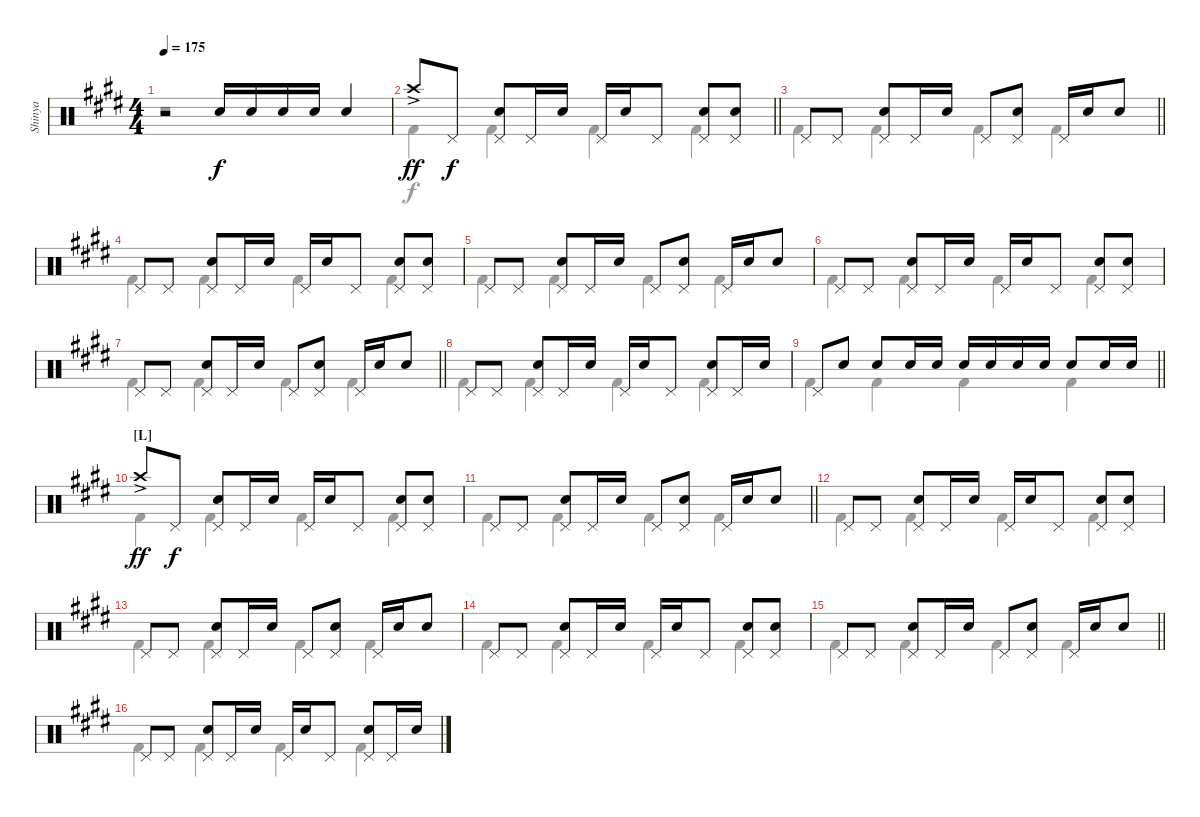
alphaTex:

\track ("Shinya" "Shinya") {instrument percussion}
\staff {score}
\articulation defaults
\voice
\ts (4 4)
\tempo 175
\clef neutral
\ks c#minor
r.2{dy f} "Snare (hit) 2".16 "Snare (hit) 2".16 "Snare (hit) 2".16 "Snare (hit) 2".16 "Snare (hit) 2".4 |
\barLineRight lightlight "Crash high (hit)"{ac}.8{dy ff} "Pedal Hi-Hat (hit)".8{dy f}
("Pedal Hi-Hat (hit)" "Snare (hit) 2").8 "Pedal Hi-Hat (hit)".16 "Snare (hit) 2".16 "Pedal Hi-Hat (hit)".16 "Snare (hit) 2".16 "Pedal Hi-Hat (hit)".8 ("Pedal Hi-Hat (hit)" "Snare (hit) 2").8 ("Pedal Hi-Hat (hit)" "Snare (hit) 2").8 |
\barLineRight lightlight "Pedal Hi-Hat (hit)".8 "Pedal Hi-Hat (hit)".8
("Pedal Hi-Hat (hit)" "Snare (hit) 2").8 "Pedal Hi-Hat (hit)".16 "Snare (hit) 2".16 "Pedal Hi-Hat (hit)".8 ("Pedal Hi-Hat (hit)" "Snare (hit) 2").8 "Pedal Hi-Hat (hit)".16 "Snare (hit) 2".16 "Snare (hit) 2".8 |
"Pedal Hi-Hat (hit)".8 "Pedal Hi-Hat (hit)".8 ("Pedal Hi-Hat (hit)" "Snare (hit) 2").8 "Pedal Hi-Hat (hit)".16 "Snare (hit) 2".16 "Pedal Hi-Hat (hit)".16 "Snare (hit) 2".16 "Pedal Hi-Hat (hit)".8 ("Pedal Hi-Hat (hit)" "Snare (hit) 2").8 ("Pedal Hi-Hat (hit)" "Snare (hit) 2").8 |
"Pedal Hi-Hat (hit)".8 "Pedal Hi-Hat (hit)".8 ("Pedal Hi-Hat (hit)" "Snare (hit) 2").8 "Pedal Hi-Hat (hit)".16 "Snare (hit) 2".16 "Pedal Hi-Hat (hit)".8 ("Pedal Hi-Hat (hit)" "Snare (hit) 2").8 "Pedal Hi-Hat (hit)".16 "Snare (hit) 2".16 "Snare (hit) 2".8 |
"Pedal Hi-Hat (hit)".8 "Pedal Hi-Hat (hit)".8 ("Pedal Hi-Hat (hit)" "Snare (hit) 2").8 "Pedal Hi-Hat (hit)".16 "Snare (hit) 2".16 "Pedal Hi-Hat (hit)".16 "Snare (hit) 2".16 "Pedal Hi-Hat (hit)".8 ("Pedal Hi-Hat (hit)" "Snare (hit) 2").8 ("Pedal Hi-Hat (hit)" "Snare (hit) 2").8 |
\barLineRight lightlight "Pedal Hi-Hat (hit)".8 "Pedal Hi-Hat (hit)".8
("Pedal Hi-Hat (hit)" "Snare (hit) 2").8 "Pedal Hi-Hat (hit)".16 "Snare (hit) 2".16 "Pedal Hi-Hat (hit)".8 ("Pedal Hi-Hat (hit)" "Snare (hit) 2").8 "Pedal Hi-Hat (hit)".16 "Snare (hit) 2".16 "Snare (hit) 2".8 |
"Pedal Hi-Hat (hit)".8 "Pedal Hi-Hat (hit)".8 ("Pedal Hi-Hat (hit)" "Snare (hit) 2").8 "Pedal Hi-Hat (hit)".16 "Snare (hit) 2".16 "Pedal Hi-Hat (hit)".16 "Snare (hit) 2".16 "Pedal Hi-Hat (hit)".8 ("Pedal Hi-Hat (hit)" "Snare (hit) 2").8 "Pedal Hi-Hat (hit)".16 "Snare (hit) 2".16 |
\barLineRight lightlight "Pedal Hi-Hat (hit)".8 "Snare (hit) 2".8 "Snare (hit) 2".8 "Snare (hit) 2".16 "Snare (hit) 2".16 "Snare (hit) 2".16 "Snare (hit) 2".16 "Snare (hit) 2".16 "Snare (hit) 2".16 "Snare (hit) 2".8 "Snare (hit) 2".16 "Snare (hit) 2".16
|
\section ("" "[L]")
"Crash high (hit)"{ac}.8{dy ff} "Pedal Hi-Hat (hit)".8{dy f} ("Pedal Hi-Hat (hit)" "Snare (hit) 2").8 "Pedal Hi-Hat (hit)".16 "Snare (hit) 2".16 "Pedal Hi-Hat (hit)".16 "Snare (hit) 2".16 "Pedal Hi-Hat (hit)".8 ("Pedal Hi-Hat (hit)" "Snare (hit) 2").8 ("Pedal Hi-Hat (hit)" "Snare (hit) 2").8 |
\barLineRight lightlight "Pedal Hi-Hat (hit)".8 "Pedal Hi-Hat (hit)".8
("Pedal Hi-Hat (hit)" "Snare (hit) 2").8 "Pedal Hi-Hat (hit)".16 "Snare (hit) 2".16 "Pedal Hi-Hat (hit)".8 ("Pedal Hi-Hat (hit)" "Snare (hit) 2").8 "Pedal Hi-Hat (hit)".16 "Snare (hit) 2".16 "Snare (hit) 2".8 |
"Pedal Hi-Hat (hit)".8 "Pedal Hi-Hat (hit)".8 ("Pedal Hi-Hat (hit)" "Snare (hit) 2").8 "Pedal Hi-Hat (hit)".16 "Snare (hit) 2".16 "Pedal Hi-Hat (hit)".16 "Snare (hit) 2".16 "Pedal Hi-Hat (hit)".8 ("Pedal Hi-Hat (hit)" "Snare (hit) 2").8 ("Pedal Hi-Hat (hit)" "Snare (hit) 2").8 |
"Pedal Hi-Hat (hit)".8 "Pedal Hi-Hat (hit)".8 ("Pedal Hi-Hat (hit)" "Snare (hit) 2").8 "Pedal Hi-Hat (hit)".16 "Snare (hit) 2".16 "Pedal Hi-Hat (hit)".8 ("Pedal Hi-Hat (hit)" "Snare (hit) 2").8 "Pedal Hi-Hat (hit)".16 "Snare (hit) 2".16 "Snare (hit) 2".8 |
"Pedal Hi-Hat (hit)".8 "Pedal Hi-Hat (hit)".8 ("Pedal Hi-Hat (hit)" "Snare (hit) 2").8 "Pedal Hi-Hat (hit)".16 "Snare (hit) 2".16 "Pedal Hi-Hat (hit)".16 "Snare (hit) 2".16 "Pedal Hi-Hat (hit)".8 ("Pedal Hi-Hat (hit)" "Snare (hit) 2").8 ("Pedal Hi-Hat (hit)" "Snare (hit) 2").8 |
\barLineRight lightlight "Pedal Hi-Hat (hit)".8 "Pedal Hi-Hat (hit)".8
("Pedal Hi-Hat (hit)" "Snare (hit) 2").8 "Pedal Hi-Hat (hit)".16 "Snare (hit) 2".16 "Pedal Hi-Hat (hit)".8 ("Pedal Hi-Hat (hit)" "Snare (hit) 2").8 "Pedal Hi-Hat (hit)".16 "Snare (hit) 2".16 "Snare (hit) 2".8 |
"Pedal Hi-Hat (hit)".8 "Pedal Hi-Hat (hit)".8 ("Pedal Hi-Hat (hit)" "Snare (hit) 2").8 "Pedal Hi-Hat (hit)".16 "Snare (hit) 2".16 "Pedal Hi-Hat (hit)".16 "Snare (hit) 2".16 "Pedal Hi-Hat (hit)".8 ("Pedal Hi-Hat (hit)" "Snare (hit) 2").8 "Pedal Hi-Hat (hit)".16 "Snare (hit) 2".16
\voice
\clef neutral
\ottava regular
\simile none
\ks c#minor
r.1{dy f} |
\barLineRight lightlight "Kick (hit) 2".4 "Kick (hit) 2".4 "Kick (hit) 2".4 "Kick (hit) 2".4
|
\barLineRight lightlight "Kick (hit) 2".4 "Kick (hit) 2".4 "Kick (hit) 2".4 "Kick (hit) 2".4
|
"Kick (hit) 2".4 "Kick (hit) 2".4 "Kick (hit) 2".4 "Kick (hit) 2".4 |
"Kick (hit) 2".4 "Kick (hit) 2".4 "Kick (hit) 2".4 "Kick (hit) 2".4 |
"Kick (hit) 2".4 "Kick (hit) 2".4 "Kick (hit) 2".4 "Kick (hit) 2".4 |
\barLineRight lightlight "Kick (hit) 2".4 "Kick (hit) 2".4 "Kick (hit) 2".4 "Kick (hit) 2".4
|
"Kick (hit) 2".4 "Kick (hit) 2".4 "Kick (hit) 2".4 "Kick (hit) 2".4 |
\barLineRight lightlight "Kick (hit) 2".4 "Kick (hit) 2".4 "Kick (hit) 2".4 "Kick (hit) 2".4
|
"Kick (hit) 2".4 "Kick (hit) 2".4 "Kick (hit) 2".4 "Kick (hit) 2".4 |
\barLineRight lightlight "Kick (hit) 2".4 "Kick (hit) 2".4 "Kick (hit) 2".4 "Kick (hit) 2".4
|
"Kick (hit) 2".4 "Kick (hit) 2".4 "Kick (hit) 2".4 "Kick (hit) 2".4 |
"Kick (hit) 2".4 "Kick (hit) 2".4 "Kick (hit) 2".4 "Kick (hit) 2".4 |
"Kick (hit) 2".4 "Kick (hit) 2".4 "Kick (hit) 2".4 "Kick (hit) 2".4 |
\barLineRight lightlight "Kick (hit) 2".4 "Kick (hit) 2".4 "Kick (hit) 2".4 "Kick (hit) 2".4
|
"Kick (hit) 2".4 "Kick (hit) 2".4 "Kick (hit) 2".4 "Kick (hit) 2".4
